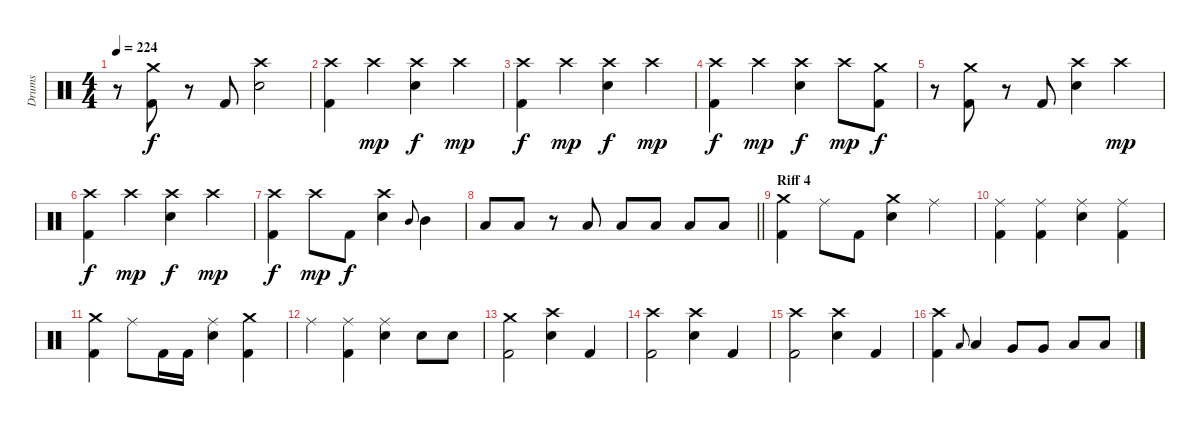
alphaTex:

\track ("Drums" "Drums") {instrument percussion}
\staff {score}
\articulation defaults
\ts (4 4)
\tempo 224
\clef neutral
\ks c
r.8{dy f} ("Kick (hit) 2" "Crash medium (hit)").8 r.8 "Kick (hit) 2".8 ("Electric Snare (hit)" "Crash high (hit)").2 |
("Crash high (hit)" "Kick (hit) 2").4 "Crash high (hit)".4{dy mp} ("Electric Snare (hit)" "Crash high (hit)").4{dy f} "Crash high (hit)".4{dy mp} |
("Crash high (hit)" "Kick (hit) 2").4{dy f} "Crash high (hit)".4{dy mp} ("Electric Snare (hit)" "Crash high (hit)").4{dy f} "Crash high (hit)".4{dy mp} |
("Crash high (hit)" "Kick (hit) 2").4{dy f} "Crash high (hit)".4{dy mp} ("Electric Snare (hit)" "Crash high (hit)").4{dy f} "Crash high (hit)".8{dy mp} ("Kick (hit) 2" "Crash medium (hit)").8{dy f} |
r.8 ("Kick (hit) 2" "Crash medium (hit)").8 r.8 "Kick (hit) 2".8 ("Electric Snare (hit)" "Crash high (hit)").4 "Crash high (hit)".4{dy mp} |
("Crash high (hit)" "Kick (hit) 2").4{dy f} "Crash high (hit)".4{dy mp} ("Electric Snare (hit)" "Crash high (hit)").4{dy f} "Crash high (hit)".4{dy mp} |
("Crash high (hit)" "Kick (hit) 2").4{dy f} "Crash high (hit)".8{dy mp} "Kick (hit) 2".8{dy f} ("Electric Snare (hit)" "Crash high (hit)").4 "Mid Tom (hit)".8{gr onbeat} "Mid Tom (hit)".4 |
\barLineRight lightlight "Low Tom (hit)".8 "Low Tom (hit)".8
r.8 "Low Tom (hit)".8 "Low Floor Tom (hit)".8 "Low Floor Tom (hit)".8 "Low Floor Tom (hit)".8 "Low Floor Tom (hit)".8 |
\section ("" "Riff 4")
("Crash medium (hit)" "Kick (hit) 2").4 "Ride (middle)".8 "Kick (hit) 2".8 ("Crash medium (hit)" "Electric Snare (hit)").4 "Ride (middle)".4 |
("Ride (middle)" "Kick (hit) 2").4 ("Ride (middle)" "Kick (hit) 2").4 ("Ride (middle)" "Electric Snare (hit)").4 ("Ride (middle)" "Kick (hit) 2").4 |
("Crash medium (hit)" "Kick (hit) 2").4 "Ride (middle)".8 "Kick (hit) 2".16 "Kick (hit) 2".16 ("Electric Snare (hit)" "Ride (middle)").4 ("Crash medium (hit)" "Kick (hit) 2").4 |
"Ride (middle)".4 ("Kick (hit) 2" "Ride (middle)").4 ("Electric Snare (hit)" "Ride (middle)").4 "Electric Snare (hit)".8 "Electric Snare (hit)".8 |
("Crash medium (hit)" "Kick (hit) 2").2 ("Electric Snare (hit)" "Crash high (hit)").4 "Kick (hit) 2".4 |
("Crash high (hit)" "Kick (hit) 2").2 ("Electric Snare (hit)" "Crash high (hit)").4 "Kick (hit) 2".4 |
("Crash high (hit)" "Kick (hit) 2").2 ("Electric Snare (hit)" "Crash high (hit)").4 "Kick (hit) 2".4 |
("Crash high (hit)" "Kick (hit) 2").4 "Low Tom (hit)".8{gr onbeat} "Low Tom (hit)".4 "Very Low Tom (hit)".8 "Very Low Tom (hit)".8 "Low Floor Tom (hit)".8 "Low Floor Tom (hit)".8
